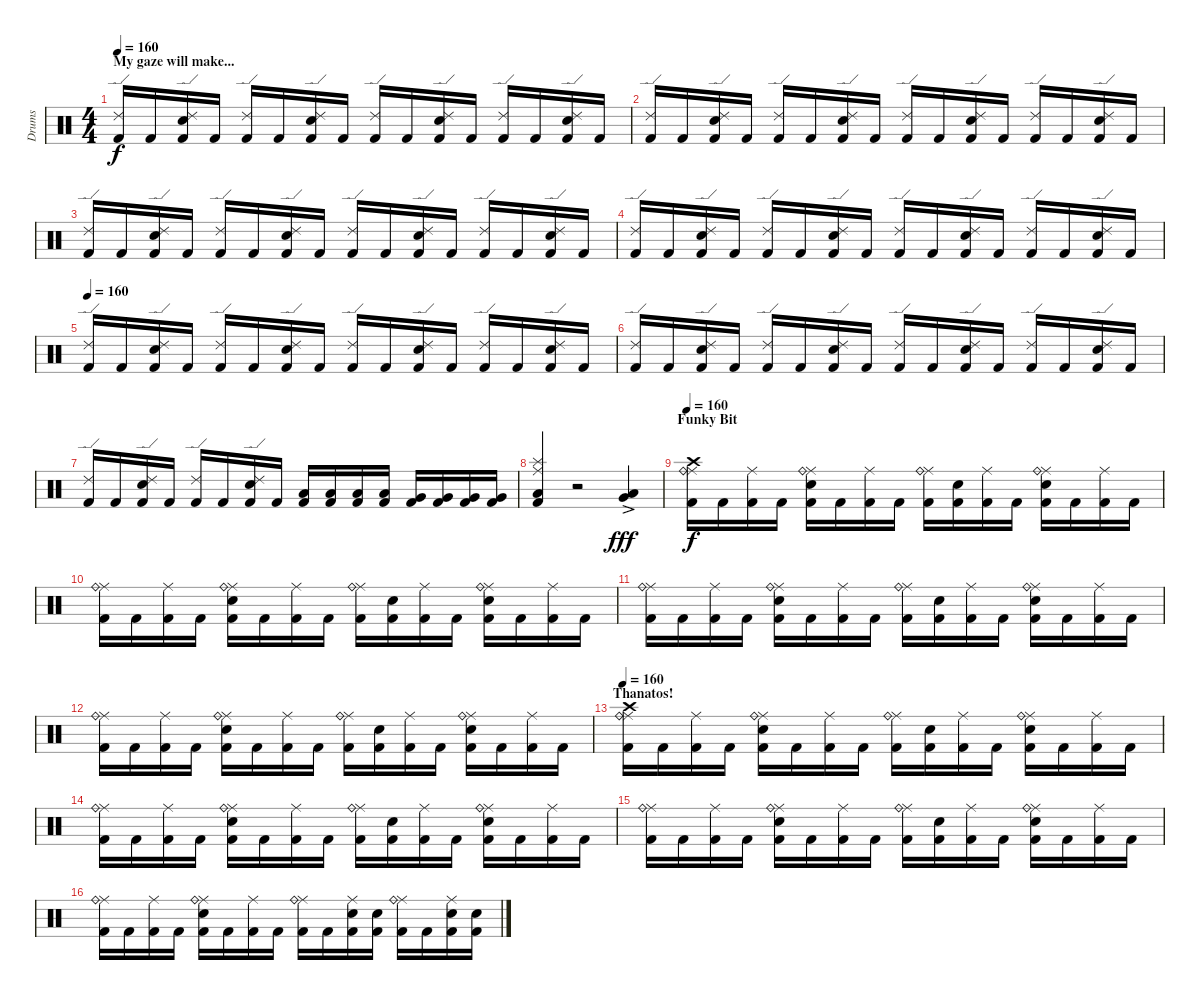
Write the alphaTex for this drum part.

\track ("Drums" "Drums") {instrument percussion}
\staff {score}
\articulation defaults
\ts (4 4)
\section ("" "My gaze will make...")
\tempo 160
\clef neutral
\ks c
("Ride (edge) 2" "Kick (hit) 2").16{dy f} "Kick (hit) 2".16 ("Ride (edge) 2" "Snare (hit) 2" "Kick (hit) 2").16 "Kick (hit) 2".16 ("Ride (edge) 2" "Kick (hit) 2").16 "Kick (hit) 2".16 ("Ride (edge) 2" "Snare (hit) 2" "Kick (hit) 2").16 "Kick (hit) 2".16 ("Ride (edge) 2" "Kick (hit) 2").16 "Kick (hit) 2".16 ("Ride (edge) 2" "Snare (hit) 2" "Kick (hit) 2").16 "Kick (hit) 2".16 ("Ride (edge) 2" "Kick (hit) 2").16 "Kick (hit) 2".16 ("Ride (edge) 2" "Snare (hit) 2" "Kick (hit) 2").16 "Kick (hit) 2".16 |
("Ride (edge) 2" "Kick (hit) 2").16 "Kick (hit) 2".16 ("Ride (edge) 2" "Snare (hit) 2" "Kick (hit) 2").16 "Kick (hit) 2".16 ("Ride (edge) 2" "Kick (hit) 2").16 "Kick (hit) 2".16 ("Ride (edge) 2" "Snare (hit) 2" "Kick (hit) 2").16 "Kick (hit) 2".16 ("Ride (edge) 2" "Kick (hit) 2").16 "Kick (hit) 2".16 ("Ride (edge) 2" "Snare (hit) 2" "Kick (hit) 2").16 "Kick (hit) 2".16 ("Ride (edge) 2" "Kick (hit) 2").16 "Kick (hit) 2".16 ("Ride (edge) 2" "Snare (hit) 2" "Kick (hit) 2").16 "Kick (hit) 2".16 |
("Ride (edge) 2" "Kick (hit) 2").16 "Kick (hit) 2".16 ("Ride (edge) 2" "Snare (hit) 2" "Kick (hit) 2").16 "Kick (hit) 2".16 ("Ride (edge) 2" "Kick (hit) 2").16 "Kick (hit) 2".16 ("Ride (edge) 2" "Snare (hit) 2" "Kick (hit) 2").16 "Kick (hit) 2".16 ("Ride (edge) 2" "Kick (hit) 2").16 "Kick (hit) 2".16 ("Ride (edge) 2" "Snare (hit) 2" "Kick (hit) 2").16 "Kick (hit) 2".16 ("Ride (edge) 2" "Kick (hit) 2").16 "Kick (hit) 2".16 ("Ride (edge) 2" "Snare (hit) 2" "Kick (hit) 2").16 "Kick (hit) 2".16 |
("Ride (edge) 2" "Kick (hit) 2").16 "Kick (hit) 2".16 ("Ride (edge) 2" "Snare (hit) 2" "Kick (hit) 2").16 "Kick (hit) 2".16 ("Ride (edge) 2" "Kick (hit) 2").16 "Kick (hit) 2".16 ("Ride (edge) 2" "Snare (hit) 2" "Kick (hit) 2").16 "Kick (hit) 2".16 ("Ride (edge) 2" "Kick (hit) 2").16 "Kick (hit) 2".16 ("Ride (edge) 2" "Snare (hit) 2" "Kick (hit) 2").16 "Kick (hit) 2".16 ("Ride (edge) 2" "Kick (hit) 2").16 "Kick (hit) 2".16 ("Ride (edge) 2" "Snare (hit) 2" "Kick (hit) 2").16 "Kick (hit) 2".16 |
\tempo 160
("Ride (edge) 2" "Kick (hit) 2").16 "Kick (hit) 2".16 ("Ride (edge) 2" "Snare (hit) 2" "Kick (hit) 2").16 "Kick (hit) 2".16 ("Ride (edge) 2" "Kick (hit) 2").16 "Kick (hit) 2".16 ("Ride (edge) 2" "Snare (hit) 2" "Kick (hit) 2").16 "Kick (hit) 2".16 ("Ride (edge) 2" "Kick (hit) 2").16 "Kick (hit) 2".16 ("Ride (edge) 2" "Snare (hit) 2" "Kick (hit) 2").16 "Kick (hit) 2".16 ("Ride (edge) 2" "Kick (hit) 2").16 "Kick (hit) 2".16 ("Ride (edge) 2" "Snare (hit) 2" "Kick (hit) 2").16 "Kick (hit) 2".16 |
("Ride (edge) 2" "Kick (hit) 2").16 "Kick (hit) 2".16 ("Ride (edge) 2" "Snare (hit) 2" "Kick (hit) 2").16 "Kick (hit) 2".16 ("Ride (edge) 2" "Kick (hit) 2").16 "Kick (hit) 2".16 ("Ride (edge) 2" "Snare (hit) 2" "Kick (hit) 2").16 "Kick (hit) 2".16 ("Ride (edge) 2" "Kick (hit) 2").16 "Kick (hit) 2".16 ("Ride (edge) 2" "Snare (hit) 2" "Kick (hit) 2").16 "Kick (hit) 2".16 ("Ride (edge) 2" "Kick (hit) 2").16 "Kick (hit) 2".16 ("Ride (edge) 2" "Snare (hit) 2" "Kick (hit) 2").16 "Kick (hit) 2".16 |
("Ride (edge) 2" "Kick (hit) 2").16 "Kick (hit) 2".16 ("Ride (edge) 2" "Snare (hit) 2" "Kick (hit) 2").16 "Kick (hit) 2".16 ("Ride (edge) 2" "Kick (hit) 2").16 "Kick (hit) 2".16 ("Ride (edge) 2" "Snare (hit) 2" "Kick (hit) 2").16 "Kick (hit) 2".16 ("Low Tom (hit)" "Kick (hit) 2").16 ("Low Tom (hit)" "Kick (hit) 2").16 ("Low Tom (hit)" "Kick (hit) 2").16 ("Low Tom (hit)" "Kick (hit) 2").16 ("Very Low Tom (hit)" "Kick (hit) 2").16 ("Very Low Tom (hit)" "Kick (hit) 2").16 ("Very Low Tom (hit)" "Kick (hit) 2").16 ("Very Low Tom (hit)" "Kick (hit) 2").16 |
("Splash (hit)" "Ride (middle)" "Low Floor Tom (hit)" "Kick (hit) 2").4 r.2 ("Very Low Tom (hit)"{ac} "Low Floor Tom (hit)"{ac}).4{dy fff} |
\section ("" "Funky Bit")
\tempo 160
("Ride (middle)" "Ride (bell)" "Crash high (hit)" "Kick (hit) 2").16{dy f} "Kick (hit) 2".16 ("Ride (middle)" "Kick (hit) 2").16 "Kick (hit) 2".16 ("Ride (middle)" "Ride (bell)" "Snare (hit) 2" "Kick (hit) 2").16 "Kick (hit) 2".16 ("Ride (middle)" "Kick (hit) 2").16 "Kick (hit) 2".16 ("Ride (middle)" "Ride (bell)" "Kick (hit) 2").16 ("Snare (hit) 2" "Kick (hit) 2").16 ("Ride (middle)" "Kick (hit) 2").16 "Kick (hit) 2".16 ("Ride (middle)" "Ride (bell)" "Snare (hit) 2" "Kick (hit) 2").16 "Kick (hit) 2".16 ("Ride (middle)" "Kick (hit) 2").16 "Kick (hit) 2".16 |
("Ride (middle)" "Ride (bell)" "Kick (hit) 2").16 "Kick (hit) 2".16 ("Ride (middle)" "Kick (hit) 2").16 "Kick (hit) 2".16 ("Ride (middle)" "Ride (bell)" "Snare (hit) 2" "Kick (hit) 2").16 "Kick (hit) 2".16 ("Ride (middle)" "Kick (hit) 2").16 "Kick (hit) 2".16 ("Ride (middle)" "Ride (bell)" "Kick (hit) 2").16 ("Snare (hit) 2" "Kick (hit) 2").16 ("Ride (middle)" "Kick (hit) 2").16 "Kick (hit) 2".16 ("Ride (middle)" "Ride (bell)" "Snare (hit) 2" "Kick (hit) 2").16 "Kick (hit) 2".16 ("Ride (middle)" "Kick (hit) 2").16 "Kick (hit) 2".16 |
("Ride (middle)" "Ride (bell)" "Kick (hit) 2").16 "Kick (hit) 2".16 ("Ride (middle)" "Kick (hit) 2").16 "Kick (hit) 2".16 ("Ride (middle)" "Ride (bell)" "Snare (hit) 2" "Kick (hit) 2").16 "Kick (hit) 2".16 ("Ride (middle)" "Kick (hit) 2").16 "Kick (hit) 2".16 ("Ride (middle)" "Ride (bell)" "Kick (hit) 2").16 ("Snare (hit) 2" "Kick (hit) 2").16 ("Ride (middle)" "Kick (hit) 2").16 "Kick (hit) 2".16 ("Ride (middle)" "Ride (bell)" "Snare (hit) 2" "Kick (hit) 2").16 "Kick (hit) 2".16 ("Ride (middle)" "Kick (hit) 2").16 "Kick (hit) 2".16 |
("Ride (middle)" "Ride (bell)" "Kick (hit) 2").16 "Kick (hit) 2".16 ("Ride (middle)" "Kick (hit) 2").16 "Kick (hit) 2".16 ("Ride (middle)" "Ride (bell)" "Snare (hit) 2" "Kick (hit) 2").16 "Kick (hit) 2".16 ("Ride (middle)" "Kick (hit) 2").16 "Kick (hit) 2".16 ("Ride (middle)" "Ride (bell)" "Kick (hit) 2").16 ("Snare (hit) 2" "Kick (hit) 2").16 ("Ride (middle)" "Kick (hit) 2").16 "Kick (hit) 2".16 ("Ride (middle)" "Ride (bell)" "Snare (hit) 2" "Kick (hit) 2").16 "Kick (hit) 2".16 ("Ride (middle)" "Kick (hit) 2").16 "Kick (hit) 2".16 |
\section ("" "Thanatos!")
\tempo 160
("Ride (middle)" "Ride (bell)" "Crash high (hit)" "Kick (hit) 2").16 "Kick (hit) 2".16 ("Ride (middle)" "Kick (hit) 2").16 "Kick (hit) 2".16 ("Ride (middle)" "Ride (bell)" "Snare (hit) 2" "Kick (hit) 2").16 "Kick (hit) 2".16 ("Ride (middle)" "Kick (hit) 2").16 "Kick (hit) 2".16 ("Ride (middle)" "Ride (bell)" "Kick (hit) 2").16 ("Snare (hit) 2" "Kick (hit) 2").16 ("Ride (middle)" "Kick (hit) 2").16 "Kick (hit) 2".16 ("Ride (middle)" "Ride (bell)" "Snare (hit) 2" "Kick (hit) 2").16 "Kick (hit) 2".16 ("Ride (middle)" "Kick (hit) 2").16 "Kick (hit) 2".16 |
("Ride (middle)" "Ride (bell)" "Kick (hit) 2").16 "Kick (hit) 2".16 ("Ride (middle)" "Kick (hit) 2").16 "Kick (hit) 2".16 ("Ride (middle)" "Ride (bell)" "Snare (hit) 2" "Kick (hit) 2").16 "Kick (hit) 2".16 ("Ride (middle)" "Kick (hit) 2").16 "Kick (hit) 2".16 ("Ride (middle)" "Ride (bell)" "Kick (hit) 2").16 ("Snare (hit) 2" "Kick (hit) 2").16 ("Ride (middle)" "Kick (hit) 2").16 "Kick (hit) 2".16 ("Ride (middle)" "Ride (bell)" "Snare (hit) 2" "Kick (hit) 2").16 "Kick (hit) 2".16 ("Ride (middle)" "Kick (hit) 2").16 "Kick (hit) 2".16 |
("Ride (middle)" "Ride (bell)" "Kick (hit) 2").16 "Kick (hit) 2".16 ("Ride (middle)" "Kick (hit) 2").16 "Kick (hit) 2".16 ("Ride (middle)" "Ride (bell)" "Snare (hit) 2" "Kick (hit) 2").16 "Kick (hit) 2".16 ("Ride (middle)" "Kick (hit) 2").16 "Kick (hit) 2".16 ("Ride (middle)" "Ride (bell)" "Kick (hit) 2").16 ("Snare (hit) 2" "Kick (hit) 2").16 ("Ride (middle)" "Kick (hit) 2").16 "Kick (hit) 2".16 ("Ride (middle)" "Ride (bell)" "Snare (hit) 2" "Kick (hit) 2").16 "Kick (hit) 2".16 ("Ride (middle)" "Kick (hit) 2").16 "Kick (hit) 2".16 |
("Ride (middle)" "Ride (bell)" "Kick (hit) 2").16 "Kick (hit) 2".16 ("Ride (middle)" "Kick (hit) 2").16 "Kick (hit) 2".16 ("Ride (middle)" "Ride (bell)" "Snare (hit) 2" "Kick (hit) 2").16 "Kick (hit) 2".16 ("Ride (middle)" "Kick (hit) 2").16 "Kick (hit) 2".16 ("Ride (middle)" "Ride (bell)" "Kick (hit) 2").16 "Kick (hit) 2".16 ("Ride (middle)" "Snare (hit) 2" "Kick (hit) 2").16 ("Snare (hit) 2" "Kick (hit) 2").16 ("Ride (middle)" "Ride (bell)" "Kick (hit) 2").16 "Kick (hit) 2".16 ("Ride (middle)" "Snare (hit) 2" "Kick (hit) 2").16 ("Snare (hit) 2" "Kick (hit) 2").16
